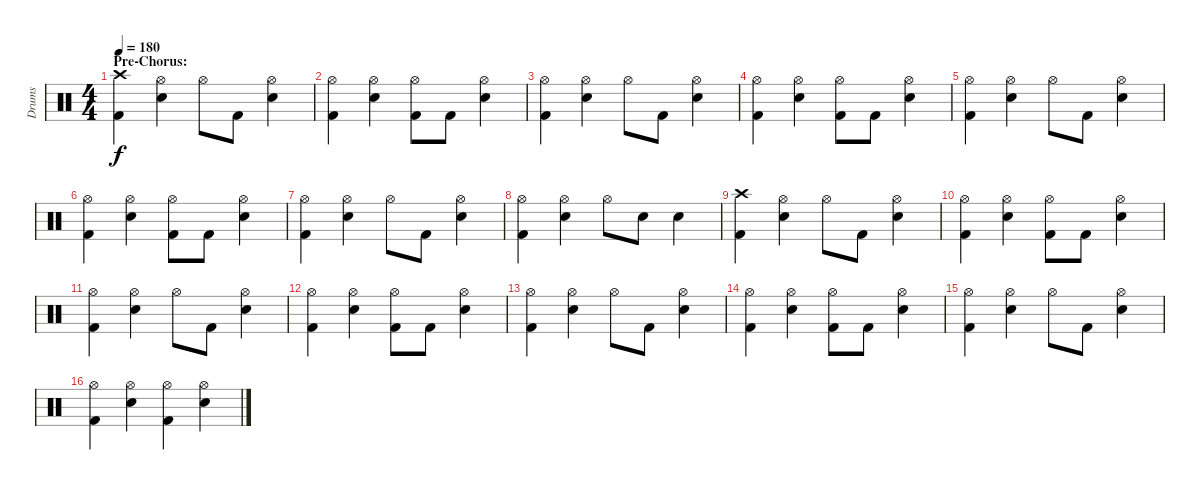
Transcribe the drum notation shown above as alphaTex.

\track ("Drums" "Drums") {instrument percussion}
\staff {score}
\articulation defaults
\ts (4 4)
\section ("" "Pre-Chorus:")
\tempo 180
\clef neutral
\ks c
("Crash high (hit)" "Kick (hit) 2").4{dy f} ("Hi-Hat (open)" "Electric Snare (hit)").4 "Hi-Hat (open)".8 "Kick (hit) 2".8 ("Hi-Hat (open)" "Electric Snare (hit)").4 |
("Hi-Hat (open)" "Kick (hit) 2").4 ("Hi-Hat (open)" "Electric Snare (hit)").4 ("Hi-Hat (open)" "Kick (hit) 2").8 "Kick (hit) 2".8 ("Hi-Hat (open)" "Electric Snare (hit)").4 |
("Hi-Hat (open)" "Kick (hit) 2").4 ("Hi-Hat (open)" "Electric Snare (hit)").4 "Hi-Hat (open)".8 "Kick (hit) 2".8 ("Hi-Hat (open)" "Electric Snare (hit)").4 |
("Hi-Hat (open)" "Kick (hit) 2").4 ("Hi-Hat (open)" "Electric Snare (hit)").4 ("Hi-Hat (open)" "Kick (hit) 2").8 "Kick (hit) 2".8 ("Hi-Hat (open)" "Electric Snare (hit)").4 |
("Hi-Hat (open)" "Kick (hit) 2").4 ("Hi-Hat (open)" "Electric Snare (hit)").4 "Hi-Hat (open)".8 "Kick (hit) 2".8 ("Hi-Hat (open)" "Electric Snare (hit)").4 |
("Hi-Hat (open)" "Kick (hit) 2").4 ("Hi-Hat (open)" "Electric Snare (hit)").4 ("Hi-Hat (open)" "Kick (hit) 2").8 "Kick (hit) 2".8 ("Hi-Hat (open)" "Electric Snare (hit)").4 |
("Hi-Hat (open)" "Kick (hit) 2").4 ("Hi-Hat (open)" "Electric Snare (hit)").4 "Hi-Hat (open)".8 "Kick (hit) 2".8 ("Hi-Hat (open)" "Electric Snare (hit)").4 |
("Hi-Hat (open)" "Kick (hit) 2").4 ("Hi-Hat (open)" "Electric Snare (hit)").4 "Hi-Hat (open)".8 "Electric Snare (hit)".8 "Electric Snare (hit)".4 |
("Crash high (hit)" "Kick (hit) 2").4 ("Hi-Hat (open)" "Electric Snare (hit)").4 "Hi-Hat (open)".8 "Kick (hit) 2".8 ("Hi-Hat (open)" "Electric Snare (hit)").4 |
("Hi-Hat (open)" "Kick (hit) 2").4 ("Hi-Hat (open)" "Electric Snare (hit)").4 ("Hi-Hat (open)" "Kick (hit) 2").8 "Kick (hit) 2".8 ("Hi-Hat (open)" "Electric Snare (hit)").4 |
("Hi-Hat (open)" "Kick (hit) 2").4 ("Hi-Hat (open)" "Electric Snare (hit)").4 "Hi-Hat (open)".8 "Kick (hit) 2".8 ("Hi-Hat (open)" "Electric Snare (hit)").4 |
("Hi-Hat (open)" "Kick (hit) 2").4 ("Hi-Hat (open)" "Electric Snare (hit)").4 ("Hi-Hat (open)" "Kick (hit) 2").8 "Kick (hit) 2".8 ("Hi-Hat (open)" "Electric Snare (hit)").4 |
("Hi-Hat (open)" "Kick (hit) 2").4 ("Hi-Hat (open)" "Electric Snare (hit)").4 "Hi-Hat (open)".8 "Kick (hit) 2".8 ("Hi-Hat (open)" "Electric Snare (hit)").4 |
("Hi-Hat (open)" "Kick (hit) 2").4 ("Hi-Hat (open)" "Electric Snare (hit)").4 ("Hi-Hat (open)" "Kick (hit) 2").8 "Kick (hit) 2".8 ("Hi-Hat (open)" "Electric Snare (hit)").4 |
("Hi-Hat (open)" "Kick (hit) 2").4 ("Hi-Hat (open)" "Electric Snare (hit)").4 "Hi-Hat (open)".8 "Kick (hit) 2".8 ("Hi-Hat (open)" "Electric Snare (hit)").4 |
("Hi-Hat (open)" "Kick (hit) 2").4 ("Hi-Hat (open)" "Electric Snare (hit)").4 ("Hi-Hat (open)" "Kick (hit) 2").4 ("Hi-Hat (open)" "Electric Snare (hit)").4
